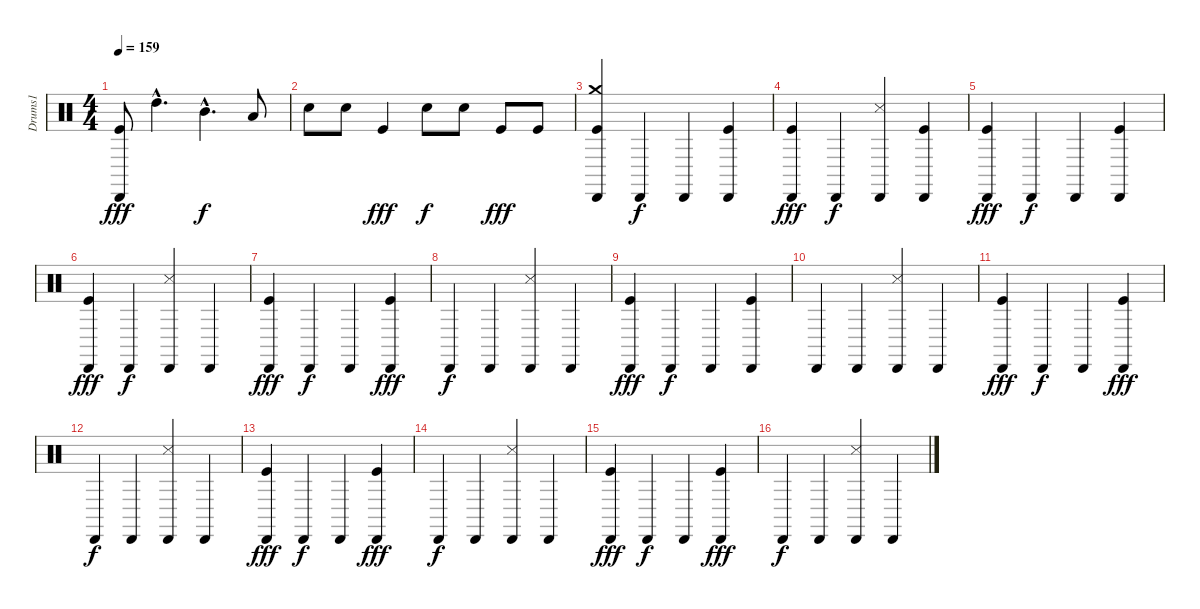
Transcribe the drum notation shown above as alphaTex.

\track ("Drums1" "Drums1") {instrument percussion}
\staff {score}
\articulation defaults
\ts (4 4)
\tempo 159
\clef neutral
\ks c
("Cabasa (hit)" "Kick (hit)").8{dy fff} "High Tom (hit)"{hac}.4{d} "Mid Tom (hit)"{hac}.4{d dy f} "Low Tom (hit)".8 |
"Electric Snare (hit)".8 "Electric Snare (hit)".8 "Kick (hit)".4{dy fff} "Snare (hit) 2".8{dy f} "Snare (hit) 2".8 "Kick (hit)".8{dy fff} "Kick (hit)".8 |
("Cabasa (hit)" "Kick (hit)" "Crash medium (hit)").4 "Cabasa (hit)".4{dy f} "Cabasa (hit)".4 ("Cabasa (hit)" "Kick (hit)").4 |
("Cabasa (hit)" "Kick (hit)").4{dy fff} "Cabasa (hit)".4{dy f} ("Cabasa (hit)" "Snare (side stick) 3").4 ("Cabasa (hit)" "Kick (hit)").4 |
("Cabasa (hit)" "Kick (hit)").4{dy fff} "Cabasa (hit)".4{dy f} "Cabasa (hit)".4 ("Cabasa (hit)" "Kick (hit)").4 |
("Kick (hit)" "Cabasa (hit)").4{dy fff} "Cabasa (hit)".4{dy f} ("Cabasa (hit)" "Snare (side stick) 3").4 "Cabasa (hit)".4 |
("Cabasa (hit)" "Kick (hit)").4{dy fff} "Cabasa (hit)".4{dy f} "Cabasa (hit)".4 ("Cabasa (hit)" "Kick (hit)").4{dy fff} |
"Cabasa (hit)".4{dy f} "Cabasa (hit)".4 ("Cabasa (hit)" "Snare (side stick) 3").4 "Cabasa (hit)".4 |
("Cabasa (hit)" "Kick (hit)").4{dy fff} "Cabasa (hit)".4{dy f} "Cabasa (hit)".4 ("Cabasa (hit)" "Kick (hit)").4 |
"Cabasa (hit)".4 "Cabasa (hit)".4 ("Cabasa (hit)" "Snare (side stick) 3").4 "Cabasa (hit)".4 |
("Cabasa (hit)" "Kick (hit)").4{dy fff} "Cabasa (hit)".4{dy f} "Cabasa (hit)".4 ("Cabasa (hit)" "Kick (hit)").4{dy fff} |
"Cabasa (hit)".4{dy f} "Cabasa (hit)".4 ("Cabasa (hit)" "Snare (side stick) 3").4 "Cabasa (hit)".4 |
("Cabasa (hit)" "Kick (hit)").4{dy fff} "Cabasa (hit)".4{dy f} "Cabasa (hit)".4 ("Cabasa (hit)" "Kick (hit)").4{dy fff} |
"Cabasa (hit)".4{dy f} "Cabasa (hit)".4 ("Cabasa (hit)" "Snare (side stick) 3").4 "Cabasa (hit)".4 |
("Cabasa (hit)" "Kick (hit)").4{dy fff} "Cabasa (hit)".4{dy f} "Cabasa (hit)".4 ("Cabasa (hit)" "Kick (hit)").4{dy fff} |
"Cabasa (hit)".4{dy f} "Cabasa (hit)".4 ("Cabasa (hit)" "Snare (side stick) 3").4 "Cabasa (hit)".4
